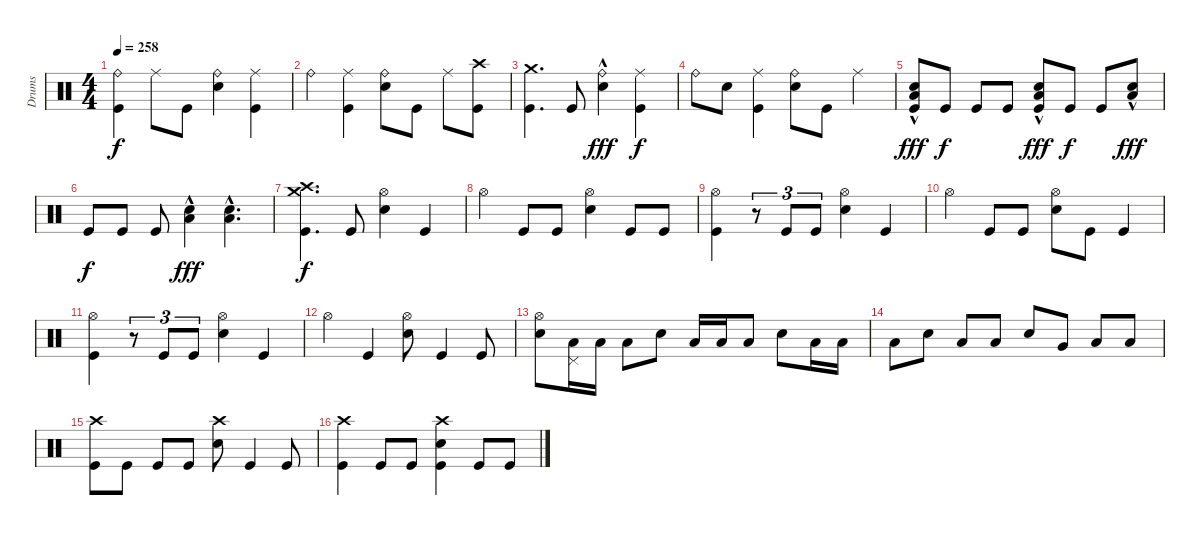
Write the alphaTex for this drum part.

\track ("Drums" "Drums") {instrument percussion}
\staff {score}
\articulation defaults
\ts (4 4)
\tempo 258
\clef neutral
\ks c
("Kick (hit)" "Ride (bell)").4{dy f} "Ride (middle)".8 "Kick (hit)".8 ("Snare (hit) 2" "Ride (bell)").4 ("Kick (hit)" "Ride (middle)").4 |
"Ride (bell)".4 ("Kick (hit)" "Ride (middle)").4 ("Snare (hit) 2" "Ride (bell)").8 "Kick (hit)".8 "Ride (middle)".8 ("Crash high (hit)" "Kick (hit)").8 |
("Kick (hit)" "Crash medium (hit)").4{d} "Kick (hit)".8 ("Snare (hit) 2" "Ride (bell)"{hac}).4{dy fff} ("Kick (hit)" "Ride (middle)").4{dy f} |
"Ride (bell)".8 "Snare (hit) 2".8 ("Kick (hit)" "Ride (middle)").4 ("Snare (hit) 2" "Ride (bell)").8 "Kick (hit)".8 "Ride (middle)".4 |
("Snare (hit) 2" "Kick (hit)" "Low Floor Tom (hit)"{hac}).8{dy fff} "Kick (hit)".8{dy f} "Kick (hit)".8 "Kick (hit)".8 ("Snare (hit) 2" "Kick (hit)" "Low Floor Tom (hit)"{hac}).8{dy fff} "Kick (hit)".8{dy f} "Kick (hit)".8 ("Snare (hit) 2" "Low Floor Tom (hit)"{hac}).8{dy fff} |
"Kick (hit)".8{dy f} "Kick (hit)".8 "Kick (hit)".8 ("Snare (hit) 2" "Low Floor Tom (hit)"{hac}).4{dy fff} ("Snare (hit) 2" "Low Floor Tom (hit)"{hac}).4{d} |
("Crash medium (hit)" "Kick (hit)" "Crash high (hit)").4{d dy f} "Kick (hit)".8 ("Snare (hit) 2" "Hi-Hat (open)").4 "Kick (hit)".4 |
"Hi-Hat (open)".4 "Kick (hit)".8 "Kick (hit)".8 ("Snare (hit) 2" "Hi-Hat (open)").4 "Kick (hit)".8 "Kick (hit)".8 |
("Hi-Hat (open)" "Kick (hit)").4 r.8{tu (3 2)} "Kick (hit)".8{tu (3 2)} "Kick (hit)".8{tu (3 2)} ("Snare (hit) 2" "Hi-Hat (open)").4 "Kick (hit)".4 |
"Hi-Hat (open)".4 "Kick (hit)".8 "Kick (hit)".8 ("Snare (hit) 2" "Hi-Hat (open)").8 "Kick (hit)".8 "Kick (hit)".4 |
("Hi-Hat (open)" "Kick (hit)").4 r.8{tu (3 2)} "Kick (hit)".8{tu (3 2)} "Kick (hit)".8{tu (3 2)} ("Snare (hit) 2" "Hi-Hat (open)").4 "Kick (hit)".4 |
"Hi-Hat (open)".4 "Kick (hit)".4 ("Snare (hit) 2" "Hi-Hat (open)").8 "Kick (hit)".4 "Kick (hit)".8 |
("Snare (hit) 2" "Hi-Hat (open)").8 ("Pedal Hi-Hat (hit)" "Low Tom (hit)").16 "Low Tom (hit)".16 "Low Tom (hit)".8 "Snare (hit) 2".8 "Low Tom (hit)".16 "Low Tom (hit)".16 "Low Tom (hit)".8 "Snare (hit) 2".8 "Low Tom (hit)".16 "Low Tom (hit)".16 |
"Low Tom (hit)".8 "Snare (hit) 2".8 "Low Tom (hit)".8 "Low Tom (hit)".8 "Snare (hit) 2".8 "Very Low Tom (hit)".8 "Low Floor Tom (hit)".8 "Low Floor Tom (hit)".8 |
("Kick (hit)" "Crash high (hit)").8 "Kick (hit)".8 "Kick (hit)".8 "Kick (hit)".8 ("Snare (hit) 2" "Crash high (hit)").8 "Kick (hit)".4 "Kick (hit)".8 |
("Kick (hit)" "Crash high (hit)").4 "Kick (hit)".8 "Kick (hit)".8 ("Snare (hit) 2" "Kick (hit)" "Crash high (hit)").4 "Kick (hit)".8 "Kick (hit)".8
